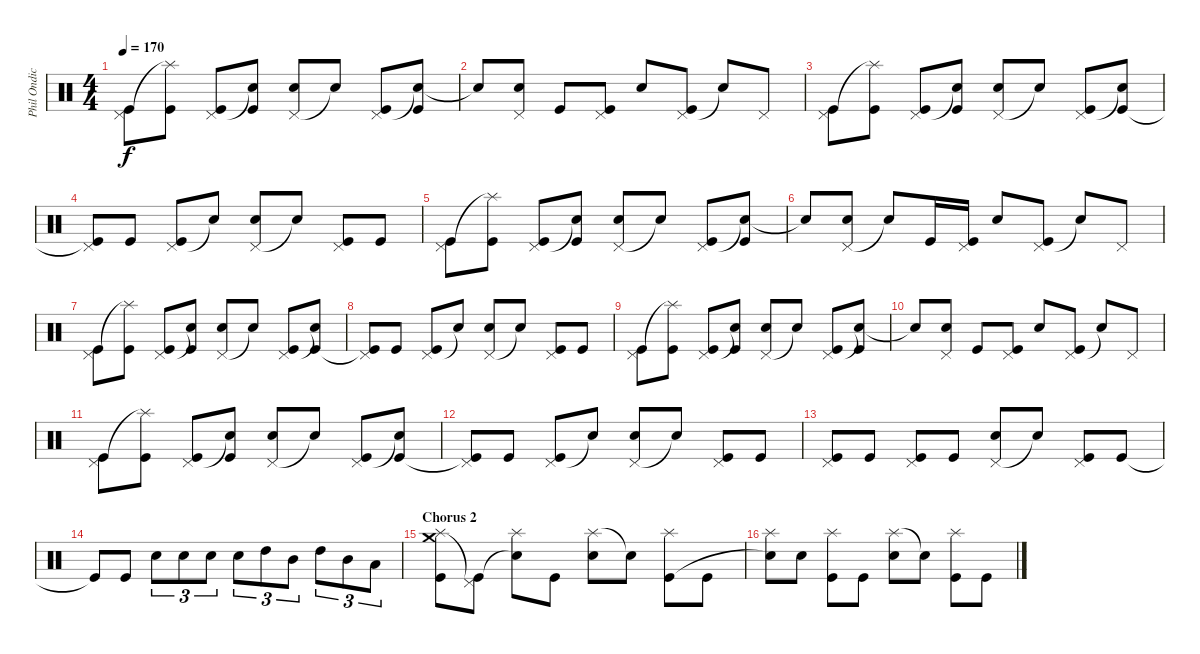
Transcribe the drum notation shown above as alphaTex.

\track ("Phil Ondich (Drums)" "Phil Ondic") {instrument percussion}
\staff {score}
\articulation defaults
\ts (4 4)
\tempo 170
\clef neutral
\ks c
("Pedal Hi-Hat (hit)" "Kick (hit)").8{dy f} ("Splash (hit)"{t} "Kick (hit)").8 ("Pedal Hi-Hat (hit)" "Kick (hit)").8 ("Snare (hit)"{t} "Kick (hit)").8 ("Pedal Hi-Hat (hit)" "Electric Snare (hit)").8 "Snare (hit)"{t}.8 ("Pedal Hi-Hat (hit)" "Kick (hit)").8 ("Snare (hit)"{t} "Kick (hit)").8 |
"Snare (hit)"{t}.8 ("Pedal Hi-Hat (hit)" "Electric Snare (hit)").8 "Kick (hit)".8 ("Pedal Hi-Hat (hit)" "Kick (hit)").8 "Electric Snare (hit)".8 ("Pedal Hi-Hat (hit)" "Kick (hit)").8 "Snare (hit)"{t}.8 "Pedal Hi-Hat (hit)".8 |
("Pedal Hi-Hat (hit)" "Kick (hit)").8 ("Splash (hit)"{t} "Kick (hit)").8 ("Pedal Hi-Hat (hit)" "Kick (hit)").8 ("Snare (hit)"{t} "Kick (hit)").8 ("Pedal Hi-Hat (hit)" "Electric Snare (hit)").8 "Snare (hit)"{t}.8 ("Pedal Hi-Hat (hit)" "Kick (hit)").8 ("Snare (hit)"{t} "Kick (hit)").8 |
("Pedal Hi-Hat (hit)" "Kick (hit)"{t}).8 "Kick (hit)".8 ("Pedal Hi-Hat (hit)" "Kick (hit)").8 "Snare (hit)"{t}.8 ("Pedal Hi-Hat (hit)" "Electric Snare (hit)").8 "Snare (hit)"{t}.8 ("Pedal Hi-Hat (hit)" "Kick (hit)").8 "Kick (hit)".8 |
("Pedal Hi-Hat (hit)" "Kick (hit)").8 ("Splash (hit)"{t} "Kick (hit)").8 ("Pedal Hi-Hat (hit)" "Kick (hit)").8 ("Snare (hit)"{t} "Kick (hit)").8 ("Pedal Hi-Hat (hit)" "Electric Snare (hit)").8 "Snare (hit)"{t}.8 ("Pedal Hi-Hat (hit)" "Kick (hit)").8 ("Snare (hit)"{t} "Kick (hit)").8 |
"Snare (hit)"{t}.8 ("Pedal Hi-Hat (hit)" "Electric Snare (hit)").8 "Snare (hit)"{t}.8 "Kick (hit)".16 ("Pedal Hi-Hat (hit)" "Kick (hit)").16 "Electric Snare (hit)".8 ("Pedal Hi-Hat (hit)" "Kick (hit)").8 "Snare (hit)"{t}.8 "Pedal Hi-Hat (hit)".8 |
("Pedal Hi-Hat (hit)" "Kick (hit)").8 ("Splash (hit)"{t} "Kick (hit)").8 ("Pedal Hi-Hat (hit)" "Kick (hit)").8 ("Snare (hit)"{t} "Kick (hit)").8 ("Pedal Hi-Hat (hit)" "Electric Snare (hit)").8 "Snare (hit)"{t}.8 ("Pedal Hi-Hat (hit)" "Kick (hit)").8 ("Snare (hit)"{t} "Kick (hit)").8 |
("Pedal Hi-Hat (hit)" "Kick (hit)"{t}).8 "Kick (hit)".8 ("Pedal Hi-Hat (hit)" "Kick (hit)").8 "Snare (hit)"{t}.8 ("Pedal Hi-Hat (hit)" "Electric Snare (hit)").8 "Snare (hit)"{t}.8 ("Pedal Hi-Hat (hit)" "Kick (hit)").8 "Kick (hit)".8 |
("Pedal Hi-Hat (hit)" "Kick (hit)").8 ("Splash (hit)"{t} "Kick (hit)").8 ("Pedal Hi-Hat (hit)" "Kick (hit)").8 ("Snare (hit)"{t} "Kick (hit)").8 ("Pedal Hi-Hat (hit)" "Electric Snare (hit)").8 "Snare (hit)"{t}.8 ("Pedal Hi-Hat (hit)" "Kick (hit)").8 ("Snare (hit)"{t} "Kick (hit)").8 |
"Snare (hit)"{t}.8 ("Pedal Hi-Hat (hit)" "Electric Snare (hit)").8 "Kick (hit)".8 ("Pedal Hi-Hat (hit)" "Kick (hit)").8 "Electric Snare (hit)".8 ("Pedal Hi-Hat (hit)" "Kick (hit)").8 "Snare (hit)"{t}.8 "Pedal Hi-Hat (hit)".8 |
("Pedal Hi-Hat (hit)" "Kick (hit)").8 ("Splash (hit)"{t} "Kick (hit)").8 ("Pedal Hi-Hat (hit)" "Kick (hit)").8 ("Snare (hit)"{t} "Kick (hit)").8 ("Pedal Hi-Hat (hit)" "Electric Snare (hit)").8 "Snare (hit)"{t}.8 ("Pedal Hi-Hat (hit)" "Kick (hit)").8 ("Snare (hit)"{t} "Kick (hit)").8 |
("Pedal Hi-Hat (hit)" "Kick (hit)"{t}).8 "Kick (hit)".8 ("Pedal Hi-Hat (hit)" "Kick (hit)").8 "Snare (hit)"{t}.8 ("Pedal Hi-Hat (hit)" "Electric Snare (hit)").8 "Snare (hit)"{t}.8 ("Pedal Hi-Hat (hit)" "Kick (hit)").8 "Kick (hit)".8 |
("Pedal Hi-Hat (hit)" "Kick (hit)").8 "Kick (hit)".8 ("Pedal Hi-Hat (hit)" "Kick (hit)").8 "Kick (hit)".8 ("Pedal Hi-Hat (hit)" "Electric Snare (hit)").8 "Snare (hit)"{t}.8 ("Pedal Hi-Hat (hit)" "Kick (hit)").8 "Kick (hit)".8 |
"Kick (hit)"{t}.8 "Kick (hit)".8 "Electric Snare (hit)".8{tu (3 2)} "Electric Snare (hit)".8{tu (3 2)} "Electric Snare (hit)".8{tu (3 2)} "Electric Snare (hit)".8{tu (3 2)} "High Tom (hit)".8{tu (3 2)} "Mid Tom (hit)".8{tu (3 2)} "High Tom (hit)".8{tu (3 2)} "Mid Tom (hit)".8{tu (3 2)} "Low Tom (hit)".8{tu (3 2)} |
\section ("" "Chorus 2")
("Crash medium (hit)" "Splash (hit)" "Kick (hit)").8 ("Pedal Hi-Hat (hit)"{t} "Kick (hit)").8 ("Splash (hit)" "Snare (hit)"{t}).8 "Kick (hit)".8 ("Splash (hit)" "Electric Snare (hit)").8 "Snare (hit)"{t}.8 ("Splash (hit)" "Kick (hit)").8 "Kick (hit)".8 |
("Splash (hit)" "Snare (hit)"{t}).8 "Electric Snare (hit)".8 ("Splash (hit)" "Kick (hit)").8 "Kick (hit)".8 ("Splash (hit)" "Electric Snare (hit)").8 "Snare (hit)"{t}.8 ("Splash (hit)" "Kick (hit)").8 "Kick (hit)".8
